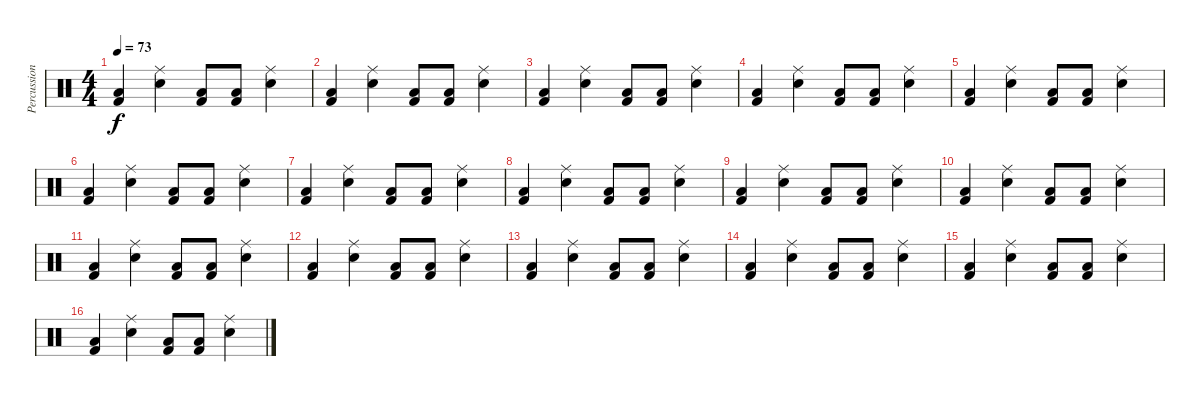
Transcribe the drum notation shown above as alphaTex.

\track ("Percussion" "Percussion") {instrument percussion}
\staff {score}
\articulation defaults
\ts (4 4)
\tempo 73
\clef neutral
\ks c
("Low Floor Tom (hit)" "Kick (hit) 2").4{dy f} ("Ride (middle)" "Electric Snare (hit)").4 ("Low Floor Tom (hit)" "Kick (hit) 2").8 ("Low Floor Tom (hit)" "Kick (hit) 2").8 ("Ride (middle)" "Electric Snare (hit)").4 |
("Low Floor Tom (hit)" "Kick (hit) 2").4 ("Ride (middle)" "Electric Snare (hit)").4 ("Low Floor Tom (hit)" "Kick (hit) 2").8 ("Low Floor Tom (hit)" "Kick (hit) 2").8 ("Ride (middle)" "Electric Snare (hit)").4 |
("Low Floor Tom (hit)" "Kick (hit) 2").4 ("Ride (middle)" "Electric Snare (hit)").4 ("Low Floor Tom (hit)" "Kick (hit) 2").8 ("Low Floor Tom (hit)" "Kick (hit) 2").8 ("Ride (middle)" "Electric Snare (hit)").4 |
("Low Floor Tom (hit)" "Kick (hit) 2").4 ("Ride (middle)" "Electric Snare (hit)").4 ("Low Floor Tom (hit)" "Kick (hit) 2").8 ("Low Floor Tom (hit)" "Kick (hit) 2").8 ("Ride (middle)" "Electric Snare (hit)").4 |
("Low Floor Tom (hit)" "Kick (hit) 2").4 ("Ride (middle)" "Electric Snare (hit)").4 ("Low Floor Tom (hit)" "Kick (hit) 2").8 ("Low Floor Tom (hit)" "Kick (hit) 2").8 ("Ride (middle)" "Electric Snare (hit)").4 |
("Low Floor Tom (hit)" "Kick (hit) 2").4 ("Ride (middle)" "Electric Snare (hit)").4 ("Low Floor Tom (hit)" "Kick (hit) 2").8 ("Low Floor Tom (hit)" "Kick (hit) 2").8 ("Ride (middle)" "Electric Snare (hit)").4 |
("Low Floor Tom (hit)" "Kick (hit) 2").4 ("Ride (middle)" "Electric Snare (hit)").4 ("Low Floor Tom (hit)" "Kick (hit) 2").8 ("Low Floor Tom (hit)" "Kick (hit) 2").8 ("Ride (middle)" "Electric Snare (hit)").4 |
("Low Floor Tom (hit)" "Kick (hit) 2").4 ("Ride (middle)" "Electric Snare (hit)").4 ("Low Floor Tom (hit)" "Kick (hit) 2").8 ("Low Floor Tom (hit)" "Kick (hit) 2").8 ("Ride (middle)" "Electric Snare (hit)").4 |
("Low Floor Tom (hit)" "Kick (hit) 2").4 ("Ride (middle)" "Electric Snare (hit)").4 ("Low Floor Tom (hit)" "Kick (hit) 2").8 ("Low Floor Tom (hit)" "Kick (hit) 2").8 ("Ride (middle)" "Electric Snare (hit)").4 |
("Low Floor Tom (hit)" "Kick (hit) 2").4 ("Ride (middle)" "Electric Snare (hit)").4 ("Low Floor Tom (hit)" "Kick (hit) 2").8 ("Low Floor Tom (hit)" "Kick (hit) 2").8 ("Ride (middle)" "Electric Snare (hit)").4 |
("Low Floor Tom (hit)" "Kick (hit) 2").4 ("Ride (middle)" "Electric Snare (hit)").4 ("Low Floor Tom (hit)" "Kick (hit) 2").8 ("Low Floor Tom (hit)" "Kick (hit) 2").8 ("Ride (middle)" "Electric Snare (hit)").4 |
("Low Floor Tom (hit)" "Kick (hit) 2").4 ("Ride (middle)" "Electric Snare (hit)").4 ("Low Floor Tom (hit)" "Kick (hit) 2").8 ("Low Floor Tom (hit)" "Kick (hit) 2").8 ("Ride (middle)" "Electric Snare (hit)").4 |
("Low Floor Tom (hit)" "Kick (hit) 2").4 ("Ride (middle)" "Electric Snare (hit)").4 ("Low Floor Tom (hit)" "Kick (hit) 2").8 ("Low Floor Tom (hit)" "Kick (hit) 2").8 ("Ride (middle)" "Electric Snare (hit)").4 |
("Low Floor Tom (hit)" "Kick (hit) 2").4 ("Ride (middle)" "Electric Snare (hit)").4 ("Low Floor Tom (hit)" "Kick (hit) 2").8 ("Low Floor Tom (hit)" "Kick (hit) 2").8 ("Ride (middle)" "Electric Snare (hit)").4 |
("Low Floor Tom (hit)" "Kick (hit) 2").4 ("Ride (middle)" "Electric Snare (hit)").4 ("Low Floor Tom (hit)" "Kick (hit) 2").8 ("Low Floor Tom (hit)" "Kick (hit) 2").8 ("Ride (middle)" "Electric Snare (hit)").4 |
("Low Floor Tom (hit)" "Kick (hit) 2").4 ("Ride (middle)" "Electric Snare (hit)").4 ("Low Floor Tom (hit)" "Kick (hit) 2").8 ("Low Floor Tom (hit)" "Kick (hit) 2").8 ("Ride (middle)" "Electric Snare (hit)").4
